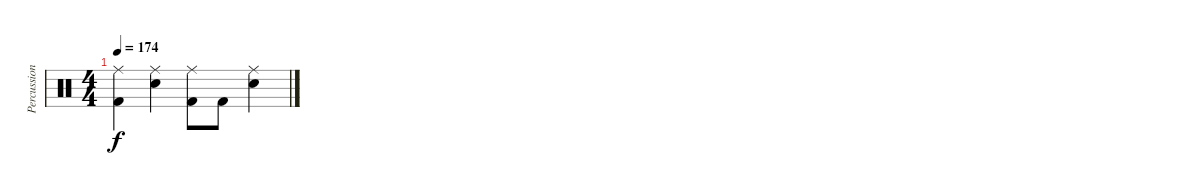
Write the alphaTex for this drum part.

\track ("Percussion" "Percussion") {instrument percussion}
\staff {score}
\articulation defaults
\ts (4 4)
\tempo 174
\clef neutral
\ks c
("Ride (middle)" "Kick (hit) 2").4{dy f} ("Ride (middle)" "Electric Snare (hit)").4 ("Ride (middle)" "Kick (hit) 2").8 "Kick (hit) 2".8 ("Ride (middle)" "Electric Snare (hit)").4
